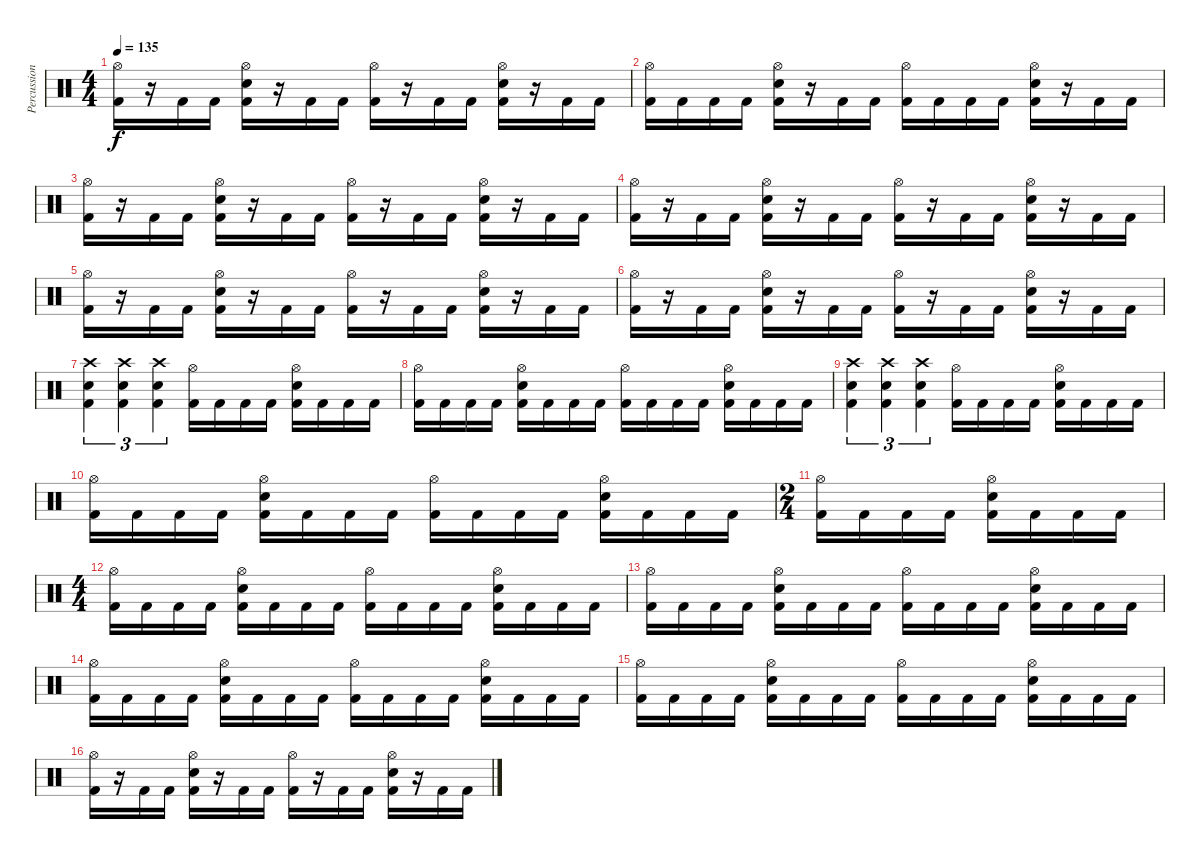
\track ("Percussions" "Percussion") {instrument percussion}
\staff {score}
\articulation defaults
\ts (4 4)
\tempo 135
\clef neutral
\ks c
("Hi-Hat (open)" "Kick (hit) 2").16{dy f} r.16 "Kick (hit) 2".16 "Kick (hit) 2".16 ("Hi-Hat (open)" "Snare (hit) 2" "Kick (hit) 2").16 r.16 "Kick (hit) 2".16 "Kick (hit) 2".16 ("Hi-Hat (open)" "Kick (hit) 2").16 r.16 "Kick (hit) 2".16 "Kick (hit) 2".16 ("Hi-Hat (open)" "Snare (hit) 2" "Kick (hit) 2").16 r.16 "Kick (hit) 2".16 "Kick (hit) 2".16 |
("Hi-Hat (open)" "Kick (hit) 2").16 "Kick (hit) 2".16 "Kick (hit) 2".16 "Kick (hit) 2".16 ("Hi-Hat (open)" "Snare (hit) 2" "Kick (hit) 2").16 r.16 "Kick (hit) 2".16 "Kick (hit) 2".16 ("Hi-Hat (open)" "Kick (hit) 2").16 "Kick (hit) 2".16 "Kick (hit) 2".16 "Kick (hit) 2".16 ("Hi-Hat (open)" "Snare (hit) 2" "Kick (hit) 2").16 r.16 "Kick (hit) 2".16 "Kick (hit) 2".16 |
("Hi-Hat (open)" "Kick (hit) 2").16 r.16 "Kick (hit) 2".16 "Kick (hit) 2".16 ("Snare (hit) 2" "Hi-Hat (open)" "Kick (hit) 2").16 r.16 "Kick (hit) 2".16 "Kick (hit) 2".16 ("Hi-Hat (open)" "Kick (hit) 2").16 r.16 "Kick (hit) 2".16 "Kick (hit) 2".16 ("Snare (hit) 2" "Hi-Hat (open)" "Kick (hit) 2").16 r.16 "Kick (hit) 2".16 "Kick (hit) 2".16 |
("Hi-Hat (open)" "Kick (hit) 2").16 r.16 "Kick (hit) 2".16 "Kick (hit) 2".16 ("Snare (hit) 2" "Hi-Hat (open)" "Kick (hit) 2").16 r.16 "Kick (hit) 2".16 "Kick (hit) 2".16 ("Hi-Hat (open)" "Kick (hit) 2").16 r.16 "Kick (hit) 2".16 "Kick (hit) 2".16 ("Snare (hit) 2" "Hi-Hat (open)" "Kick (hit) 2").16 r.16 "Kick (hit) 2".16 "Kick (hit) 2".16 |
("Hi-Hat (open)" "Kick (hit) 2").16 r.16 "Kick (hit) 2".16 "Kick (hit) 2".16 ("Snare (hit) 2" "Hi-Hat (open)" "Kick (hit) 2").16 r.16 "Kick (hit) 2".16 "Kick (hit) 2".16 ("Hi-Hat (open)" "Kick (hit) 2").16 r.16 "Kick (hit) 2".16 "Kick (hit) 2".16 ("Snare (hit) 2" "Hi-Hat (open)" "Kick (hit) 2").16 r.16 "Kick (hit) 2".16 "Kick (hit) 2".16 |
("Hi-Hat (open)" "Kick (hit) 2").16 r.16 "Kick (hit) 2".16 "Kick (hit) 2".16 ("Snare (hit) 2" "Hi-Hat (open)" "Kick (hit) 2").16 r.16 "Kick (hit) 2".16 "Kick (hit) 2".16 ("Hi-Hat (open)" "Kick (hit) 2").16 r.16 "Kick (hit) 2".16 "Kick (hit) 2".16 ("Snare (hit) 2" "Hi-Hat (open)" "Kick (hit) 2").16 r.16 "Kick (hit) 2".16 "Kick (hit) 2".16 |
("Snare (hit) 2" "Crash high (hit)" "Kick (hit) 2").4{tu (3 2)} ("Snare (hit) 2" "Crash high (hit)" "Kick (hit) 2").4{tu (3 2)} ("Snare (hit) 2" "Crash high (hit)" "Kick (hit) 2").4{tu (3 2)} ("Hi-Hat (open)" "Kick (hit) 2").16 "Kick (hit) 2".16 "Kick (hit) 2".16 "Kick (hit) 2".16 ("Snare (hit) 2" "Hi-Hat (open)" "Kick (hit) 2").16 "Kick (hit) 2".16 "Kick (hit) 2".16 "Kick (hit) 2".16 |
("Hi-Hat (open)" "Kick (hit) 2").16 "Kick (hit) 2".16 "Kick (hit) 2".16 "Kick (hit) 2".16 ("Snare (hit) 2" "Hi-Hat (open)" "Kick (hit) 2").16 "Kick (hit) 2".16 "Kick (hit) 2".16 "Kick (hit) 2".16 ("Hi-Hat (open)" "Kick (hit) 2").16 "Kick (hit) 2".16 "Kick (hit) 2".16 "Kick (hit) 2".16 ("Snare (hit) 2" "Hi-Hat (open)" "Kick (hit) 2").16 "Kick (hit) 2".16 "Kick (hit) 2".16 "Kick (hit) 2".16 |
("Snare (hit) 2" "Crash high (hit)" "Kick (hit) 2").4{tu (3 2)} ("Snare (hit) 2" "Crash high (hit)" "Kick (hit) 2").4{tu (3 2)} ("Snare (hit) 2" "Crash high (hit)" "Kick (hit) 2").4{tu (3 2)} ("Hi-Hat (open)" "Kick (hit) 2").16 "Kick (hit) 2".16 "Kick (hit) 2".16 "Kick (hit) 2".16 ("Snare (hit) 2" "Hi-Hat (open)" "Kick (hit) 2").16 "Kick (hit) 2".16 "Kick (hit) 2".16 "Kick (hit) 2".16 |
("Hi-Hat (open)" "Kick (hit) 2").16 "Kick (hit) 2".16 "Kick (hit) 2".16 "Kick (hit) 2".16 ("Snare (hit) 2" "Hi-Hat (open)" "Kick (hit) 2").16 "Kick (hit) 2".16 "Kick (hit) 2".16 "Kick (hit) 2".16 ("Hi-Hat (open)" "Kick (hit) 2").16 "Kick (hit) 2".16 "Kick (hit) 2".16 "Kick (hit) 2".16 ("Snare (hit) 2" "Hi-Hat (open)" "Kick (hit) 2").16 "Kick (hit) 2".16 "Kick (hit) 2".16 "Kick (hit) 2".16 |
\ts (2 4)
("Hi-Hat (open)" "Kick (hit) 2").16 "Kick (hit) 2".16 "Kick (hit) 2".16 "Kick (hit) 2".16 ("Snare (hit) 2" "Hi-Hat (open)" "Kick (hit) 2").16 "Kick (hit) 2".16 "Kick (hit) 2".16 "Kick (hit) 2".16 |
\ts (4 4)
("Hi-Hat (open)" "Kick (hit) 2").16 "Kick (hit) 2".16 "Kick (hit) 2".16 "Kick (hit) 2".16 ("Snare (hit) 2" "Hi-Hat (open)" "Kick (hit) 2").16 "Kick (hit) 2".16 "Kick (hit) 2".16 "Kick (hit) 2".16 ("Hi-Hat (open)" "Kick (hit) 2").16 "Kick (hit) 2".16 "Kick (hit) 2".16 "Kick (hit) 2".16 ("Snare (hit) 2" "Hi-Hat (open)" "Kick (hit) 2").16 "Kick (hit) 2".16 "Kick (hit) 2".16 "Kick (hit) 2".16 |
("Hi-Hat (open)" "Kick (hit) 2").16 "Kick (hit) 2".16 "Kick (hit) 2".16 "Kick (hit) 2".16 ("Snare (hit) 2" "Hi-Hat (open)" "Kick (hit) 2").16 "Kick (hit) 2".16 "Kick (hit) 2".16 "Kick (hit) 2".16 ("Hi-Hat (open)" "Kick (hit) 2").16 "Kick (hit) 2".16 "Kick (hit) 2".16 "Kick (hit) 2".16 ("Snare (hit) 2" "Hi-Hat (open)" "Kick (hit) 2").16 "Kick (hit) 2".16 "Kick (hit) 2".16 "Kick (hit) 2".16 |
("Hi-Hat (open)" "Kick (hit) 2").16 "Kick (hit) 2".16 "Kick (hit) 2".16 "Kick (hit) 2".16 ("Snare (hit) 2" "Hi-Hat (open)" "Kick (hit) 2").16 "Kick (hit) 2".16 "Kick (hit) 2".16 "Kick (hit) 2".16 ("Hi-Hat (open)" "Kick (hit) 2").16 "Kick (hit) 2".16 "Kick (hit) 2".16 "Kick (hit) 2".16 ("Snare (hit) 2" "Hi-Hat (open)" "Kick (hit) 2").16 "Kick (hit) 2".16 "Kick (hit) 2".16 "Kick (hit) 2".16 |
("Hi-Hat (open)" "Kick (hit) 2").16 "Kick (hit) 2".16 "Kick (hit) 2".16 "Kick (hit) 2".16 ("Snare (hit) 2" "Hi-Hat (open)" "Kick (hit) 2").16 "Kick (hit) 2".16 "Kick (hit) 2".16 "Kick (hit) 2".16 ("Hi-Hat (open)" "Kick (hit) 2").16 "Kick (hit) 2".16 "Kick (hit) 2".16 "Kick (hit) 2".16 ("Snare (hit) 2" "Hi-Hat (open)" "Kick (hit) 2").16 "Kick (hit) 2".16 "Kick (hit) 2".16 "Kick (hit) 2".16 |
("Hi-Hat (open)" "Kick (hit) 2").16 r.16 "Kick (hit) 2".16 "Kick (hit) 2".16 ("Hi-Hat (open)" "Snare (hit) 2" "Kick (hit) 2").16 r.16 "Kick (hit) 2".16 "Kick (hit) 2".16 ("Hi-Hat (open)" "Kick (hit) 2").16 r.16 "Kick (hit) 2".16 "Kick (hit) 2".16 ("Hi-Hat (open)" "Snare (hit) 2" "Kick (hit) 2").16 r.16 "Kick (hit) 2".16 "Kick (hit) 2".16
